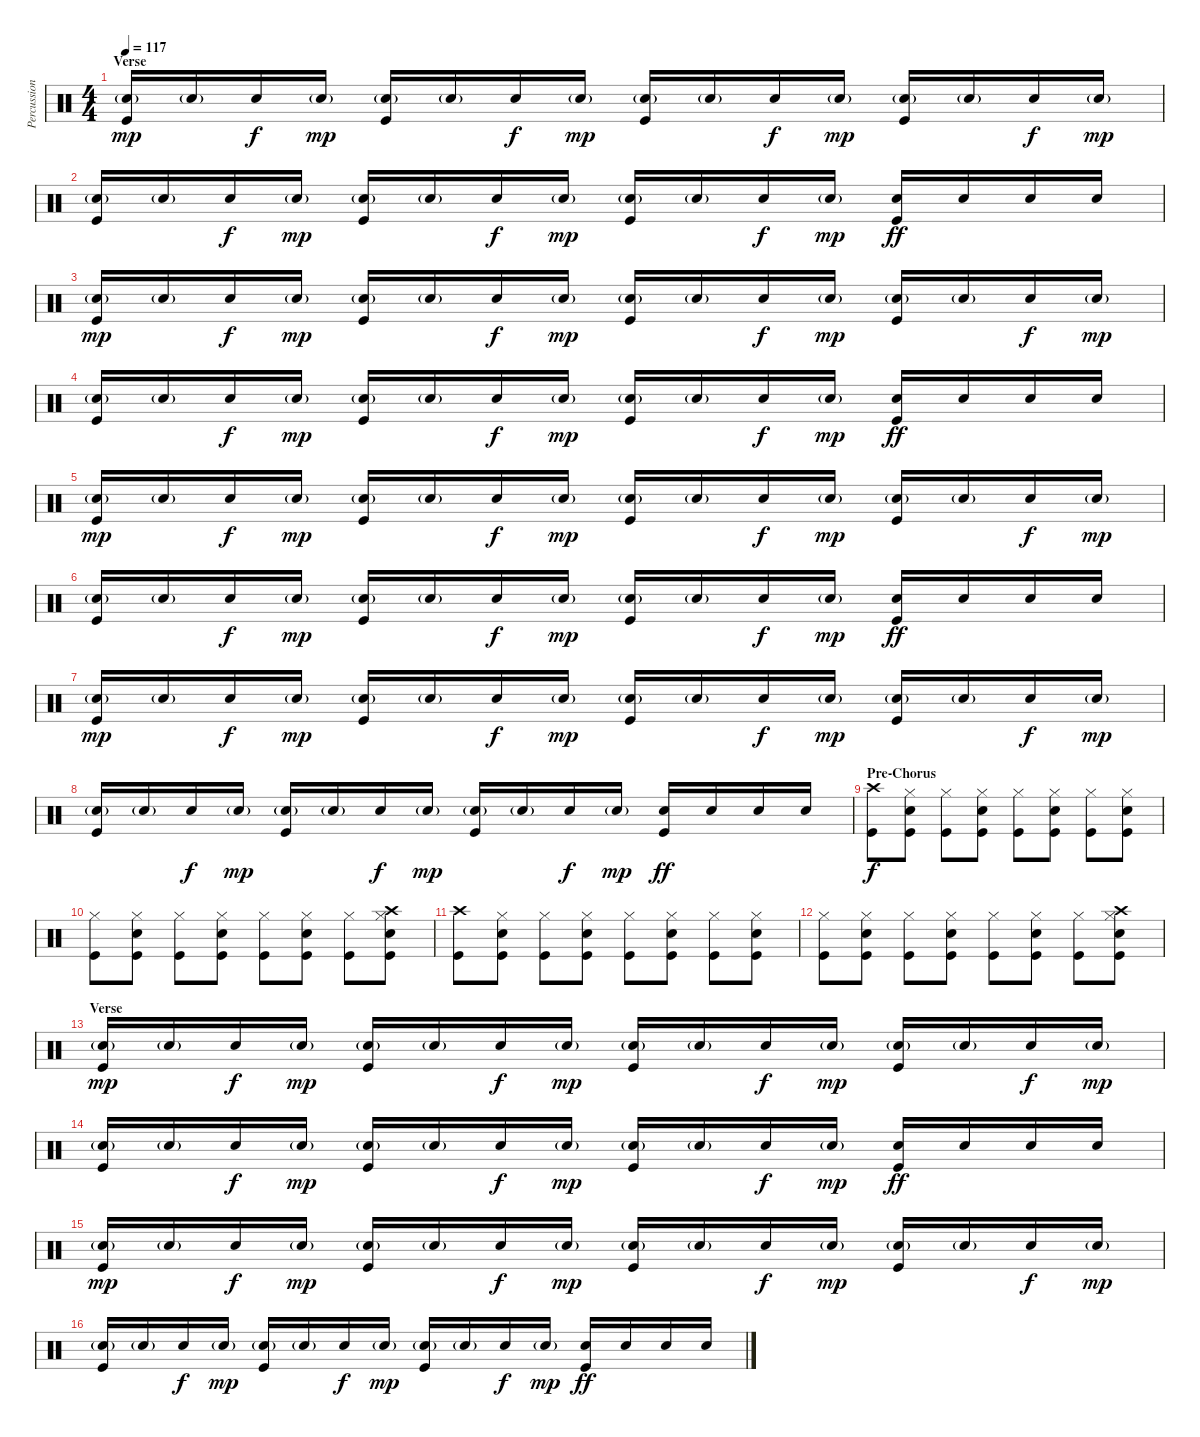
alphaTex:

\track ("Percussion" "Percussion") {instrument percussion}
\staff {score}
\articulation defaults
\ts (4 4)
\section ("" "Verse")
\tempo 117
\clef neutral
\ks c
("Snare (hit) 2"{g} "Kick (hit)").16{dy mp} "Snare (hit) 2"{g}.16 "Snare (hit) 2".16{dy f} "Snare (hit) 2"{g}.16{dy mp} ("Snare (hit) 2"{g} "Kick (hit)").16 "Snare (hit) 2"{g}.16 "Snare (hit) 2".16{dy f} "Snare (hit) 2"{g}.16{dy mp} ("Snare (hit) 2"{g} "Kick (hit)").16 "Snare (hit) 2"{g}.16 "Snare (hit) 2".16{dy f} "Snare (hit) 2"{g}.16{dy mp} ("Snare (hit) 2"{g} "Kick (hit)").16 "Snare (hit) 2"{g}.16 "Snare (hit) 2".16{dy f} "Snare (hit) 2"{g}.16{dy mp} |
("Snare (hit) 2"{g} "Kick (hit)").16 "Snare (hit) 2"{g}.16 "Snare (hit) 2".16{dy f} "Snare (hit) 2"{g}.16{dy mp} ("Snare (hit) 2"{g} "Kick (hit)").16 "Snare (hit) 2"{g}.16 "Snare (hit) 2".16{dy f} "Snare (hit) 2"{g}.16{dy mp} ("Snare (hit) 2"{g} "Kick (hit)").16 "Snare (hit) 2"{g}.16 "Snare (hit) 2".16{dy f} "Snare (hit) 2"{g}.16{dy mp} ("Snare (hit) 2" "Kick (hit)").16{dy ff} "Snare (hit) 2".16 "Snare (hit) 2".16 "Snare (hit) 2".16 |
("Snare (hit) 2"{g} "Kick (hit)").16{dy mp} "Snare (hit) 2"{g}.16 "Snare (hit) 2".16{dy f} "Snare (hit) 2"{g}.16{dy mp} ("Snare (hit) 2"{g} "Kick (hit)").16 "Snare (hit) 2"{g}.16 "Snare (hit) 2".16{dy f} "Snare (hit) 2"{g}.16{dy mp} ("Snare (hit) 2"{g} "Kick (hit)").16 "Snare (hit) 2"{g}.16 "Snare (hit) 2".16{dy f} "Snare (hit) 2"{g}.16{dy mp} ("Snare (hit) 2"{g} "Kick (hit)").16 "Snare (hit) 2"{g}.16 "Snare (hit) 2".16{dy f} "Snare (hit) 2"{g}.16{dy mp} |
("Snare (hit) 2"{g} "Kick (hit)").16 "Snare (hit) 2"{g}.16 "Snare (hit) 2".16{dy f} "Snare (hit) 2"{g}.16{dy mp} ("Snare (hit) 2"{g} "Kick (hit)").16 "Snare (hit) 2"{g}.16 "Snare (hit) 2".16{dy f} "Snare (hit) 2"{g}.16{dy mp} ("Snare (hit) 2"{g} "Kick (hit)").16 "Snare (hit) 2"{g}.16 "Snare (hit) 2".16{dy f} "Snare (hit) 2"{g}.16{dy mp} ("Snare (hit) 2" "Kick (hit)").16{dy ff} "Snare (hit) 2".16 "Snare (hit) 2".16 "Snare (hit) 2".16 |
("Snare (hit) 2"{g} "Kick (hit)").16{dy mp} "Snare (hit) 2"{g}.16 "Snare (hit) 2".16{dy f} "Snare (hit) 2"{g}.16{dy mp} ("Snare (hit) 2"{g} "Kick (hit)").16 "Snare (hit) 2"{g}.16 "Snare (hit) 2".16{dy f} "Snare (hit) 2"{g}.16{dy mp} ("Snare (hit) 2"{g} "Kick (hit)").16 "Snare (hit) 2"{g}.16 "Snare (hit) 2".16{dy f} "Snare (hit) 2"{g}.16{dy mp} ("Snare (hit) 2"{g} "Kick (hit)").16 "Snare (hit) 2"{g}.16 "Snare (hit) 2".16{dy f} "Snare (hit) 2"{g}.16{dy mp} |
("Snare (hit) 2"{g} "Kick (hit)").16 "Snare (hit) 2"{g}.16 "Snare (hit) 2".16{dy f} "Snare (hit) 2"{g}.16{dy mp} ("Snare (hit) 2"{g} "Kick (hit)").16 "Snare (hit) 2"{g}.16 "Snare (hit) 2".16{dy f} "Snare (hit) 2"{g}.16{dy mp} ("Snare (hit) 2"{g} "Kick (hit)").16 "Snare (hit) 2"{g}.16 "Snare (hit) 2".16{dy f} "Snare (hit) 2"{g}.16{dy mp} ("Snare (hit) 2" "Kick (hit)").16{dy ff} "Snare (hit) 2".16 "Snare (hit) 2".16 "Snare (hit) 2".16 |
("Snare (hit) 2"{g} "Kick (hit)").16{dy mp} "Snare (hit) 2"{g}.16 "Snare (hit) 2".16{dy f} "Snare (hit) 2"{g}.16{dy mp} ("Snare (hit) 2"{g} "Kick (hit)").16 "Snare (hit) 2"{g}.16 "Snare (hit) 2".16{dy f} "Snare (hit) 2"{g}.16{dy mp} ("Snare (hit) 2"{g} "Kick (hit)").16 "Snare (hit) 2"{g}.16 "Snare (hit) 2".16{dy f} "Snare (hit) 2"{g}.16{dy mp} ("Snare (hit) 2"{g} "Kick (hit)").16 "Snare (hit) 2"{g}.16 "Snare (hit) 2".16{dy f} "Snare (hit) 2"{g}.16{dy mp} |
("Snare (hit) 2"{g} "Kick (hit)").16 "Snare (hit) 2"{g}.16 "Snare (hit) 2".16{dy f} "Snare (hit) 2"{g}.16{dy mp} ("Snare (hit) 2"{g} "Kick (hit)").16 "Snare (hit) 2"{g}.16 "Snare (hit) 2".16{dy f} "Snare (hit) 2"{g}.16{dy mp} ("Snare (hit) 2"{g} "Kick (hit)").16 "Snare (hit) 2"{g}.16 "Snare (hit) 2".16{dy f} "Snare (hit) 2"{g}.16{dy mp} ("Snare (hit) 2" "Kick (hit)").16{dy ff} "Snare (hit) 2".16 "Snare (hit) 2".16 "Snare (hit) 2".16 |
\section ("" "Pre-Chorus")
("Crash high (hit)" "Kick (hit)").8{dy f} ("Hi-Hat (closed)" "Snare (hit) 2" "Kick (hit)").8 ("Hi-Hat (closed)" "Kick (hit)").8 ("Hi-Hat (closed)" "Snare (hit) 2" "Kick (hit)").8 ("Hi-Hat (closed)" "Kick (hit)").8 ("Hi-Hat (closed)" "Snare (hit) 2" "Kick (hit)").8 ("Hi-Hat (closed)" "Kick (hit)").8 ("Hi-Hat (closed)" "Snare (hit) 2" "Kick (hit)").8 |
("Hi-Hat (closed)" "Kick (hit)").8 ("Hi-Hat (closed)" "Snare (hit) 2" "Kick (hit)").8 ("Hi-Hat (closed)" "Kick (hit)").8 ("Hi-Hat (closed)" "Snare (hit) 2" "Kick (hit)").8 ("Hi-Hat (closed)" "Kick (hit)").8 ("Hi-Hat (closed)" "Snare (hit) 2" "Kick (hit)").8 ("Hi-Hat (closed)" "Kick (hit)").8 ("Crash high (hit)" "Hi-Hat (closed)" "Snare (hit) 2" "Kick (hit)").8 |
("Crash high (hit)" "Kick (hit)").8 ("Hi-Hat (closed)" "Snare (hit) 2" "Kick (hit)").8 ("Hi-Hat (closed)" "Kick (hit)").8 ("Hi-Hat (closed)" "Snare (hit) 2" "Kick (hit)").8 ("Hi-Hat (closed)" "Kick (hit)").8 ("Hi-Hat (closed)" "Snare (hit) 2" "Kick (hit)").8 ("Hi-Hat (closed)" "Kick (hit)").8 ("Hi-Hat (closed)" "Snare (hit) 2" "Kick (hit)").8 |
("Hi-Hat (closed)" "Kick (hit)").8 ("Hi-Hat (closed)" "Snare (hit) 2" "Kick (hit)").8 ("Hi-Hat (closed)" "Kick (hit)").8 ("Hi-Hat (closed)" "Snare (hit) 2" "Kick (hit)").8 ("Hi-Hat (closed)" "Kick (hit)").8 ("Hi-Hat (closed)" "Snare (hit) 2" "Kick (hit)").8 ("Hi-Hat (closed)" "Kick (hit)").8 ("Crash high (hit)" "Hi-Hat (closed)" "Snare (hit) 2" "Kick (hit)").8 |
\section ("" "Verse")
("Snare (hit) 2"{g} "Kick (hit)").16{dy mp} "Snare (hit) 2"{g}.16 "Snare (hit) 2".16{dy f} "Snare (hit) 2"{g}.16{dy mp} ("Snare (hit) 2"{g} "Kick (hit)").16 "Snare (hit) 2"{g}.16 "Snare (hit) 2".16{dy f} "Snare (hit) 2"{g}.16{dy mp} ("Snare (hit) 2"{g} "Kick (hit)").16 "Snare (hit) 2"{g}.16 "Snare (hit) 2".16{dy f} "Snare (hit) 2"{g}.16{dy mp} ("Snare (hit) 2"{g} "Kick (hit)").16 "Snare (hit) 2"{g}.16 "Snare (hit) 2".16{dy f} "Snare (hit) 2"{g}.16{dy mp} |
("Snare (hit) 2"{g} "Kick (hit)").16 "Snare (hit) 2"{g}.16 "Snare (hit) 2".16{dy f} "Snare (hit) 2"{g}.16{dy mp} ("Snare (hit) 2"{g} "Kick (hit)").16 "Snare (hit) 2"{g}.16 "Snare (hit) 2".16{dy f} "Snare (hit) 2"{g}.16{dy mp} ("Snare (hit) 2"{g} "Kick (hit)").16 "Snare (hit) 2"{g}.16 "Snare (hit) 2".16{dy f} "Snare (hit) 2"{g}.16{dy mp} ("Snare (hit) 2" "Kick (hit)").16{dy ff} "Snare (hit) 2".16 "Snare (hit) 2".16 "Snare (hit) 2".16 |
("Snare (hit) 2"{g} "Kick (hit)").16{dy mp} "Snare (hit) 2"{g}.16 "Snare (hit) 2".16{dy f} "Snare (hit) 2"{g}.16{dy mp} ("Snare (hit) 2"{g} "Kick (hit)").16 "Snare (hit) 2"{g}.16 "Snare (hit) 2".16{dy f} "Snare (hit) 2"{g}.16{dy mp} ("Snare (hit) 2"{g} "Kick (hit)").16 "Snare (hit) 2"{g}.16 "Snare (hit) 2".16{dy f} "Snare (hit) 2"{g}.16{dy mp} ("Snare (hit) 2"{g} "Kick (hit)").16 "Snare (hit) 2"{g}.16 "Snare (hit) 2".16{dy f} "Snare (hit) 2"{g}.16{dy mp} |
("Snare (hit) 2"{g} "Kick (hit)").16 "Snare (hit) 2"{g}.16 "Snare (hit) 2".16{dy f} "Snare (hit) 2"{g}.16{dy mp} ("Snare (hit) 2"{g} "Kick (hit)").16 "Snare (hit) 2"{g}.16 "Snare (hit) 2".16{dy f} "Snare (hit) 2"{g}.16{dy mp} ("Snare (hit) 2"{g} "Kick (hit)").16 "Snare (hit) 2"{g}.16 "Snare (hit) 2".16{dy f} "Snare (hit) 2"{g}.16{dy mp} ("Snare (hit) 2" "Kick (hit)").16{dy ff} "Snare (hit) 2".16 "Snare (hit) 2".16 "Snare (hit) 2".16
